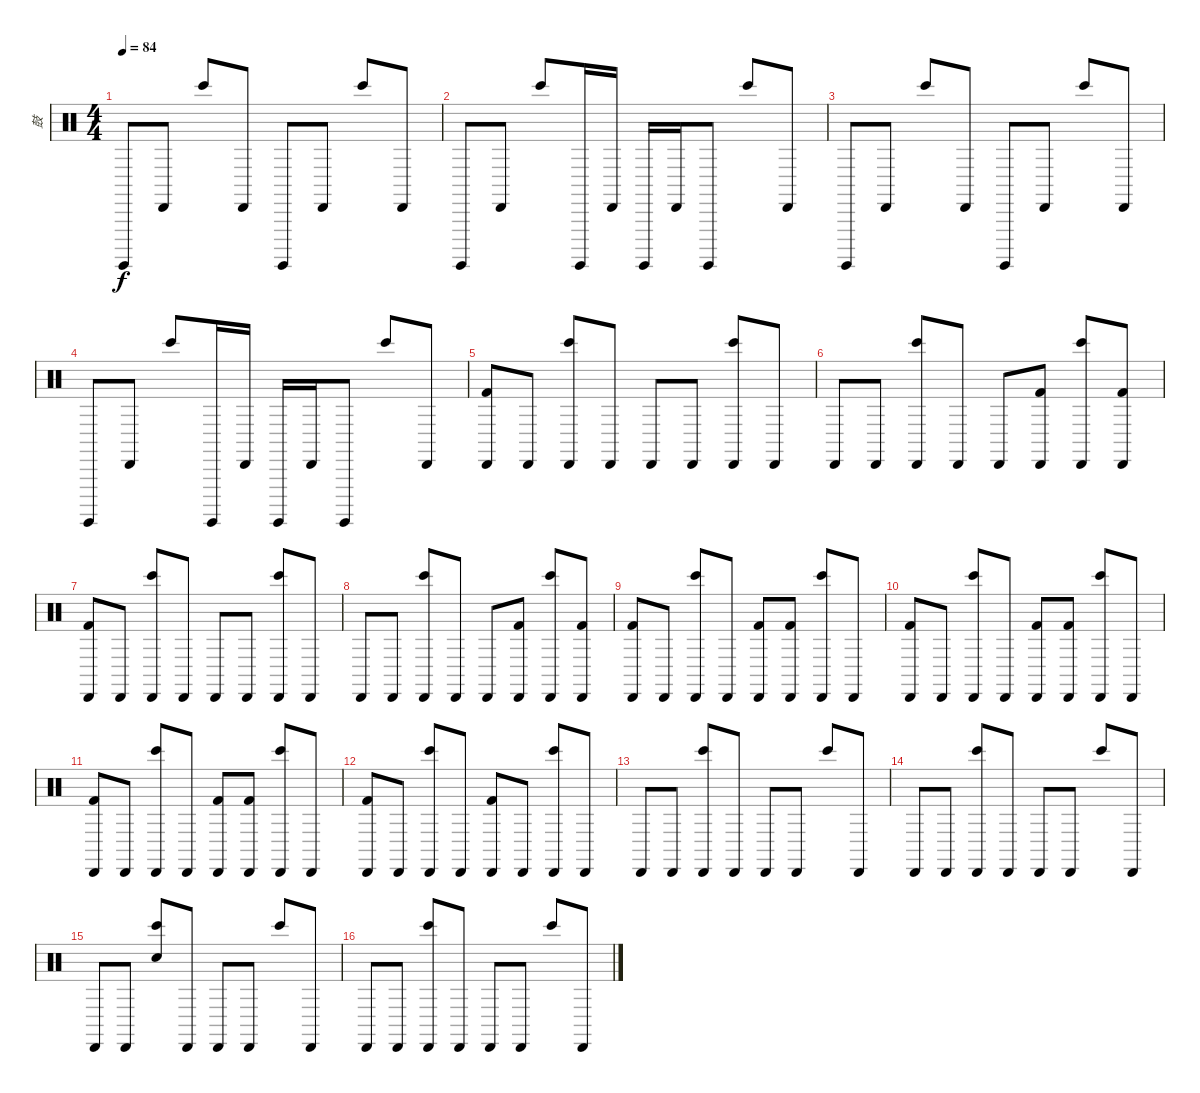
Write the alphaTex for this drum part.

\track ("鼓" "鼓") {instrument percussion}
\staff {score}
\articulation defaults
\ts (4 4)
\tempo 84
\clef neutral
\ks c "Surdo (hit)".8{dy f} "Cabasa (hit)".8 "Bongo High (hit)".8 "Cabasa (hit)".8 "Surdo (hit)".8 "Cabasa (hit)".8 "Bongo High (hit)".8 "Cabasa (hit)".8
|
"Surdo (hit)".8 "Cabasa (hit)".8 "Bongo High (hit)".8 "Surdo (hit)".16 "Cabasa (hit)".16 "Surdo (hit)".16 "Cabasa (hit)".16 "Surdo (hit)".8 "Bongo High (hit)".8 "Cabasa (hit)".8 |
"Surdo (hit)".8 "Cabasa (hit)".8 "Bongo High (hit)".8 "Cabasa (hit)".8 "Surdo (hit)".8 "Cabasa (hit)".8 "Bongo High (hit)".8 "Cabasa (hit)".8 |
"Surdo (hit)".8 "Cabasa (hit)".8 "Bongo High (hit)".8 "Surdo (hit)".16 "Cabasa (hit)".16 "Surdo (hit)".16 "Cabasa (hit)".16 "Surdo (hit)".8 "Bongo High (hit)".8 "Cabasa (hit)".8 |
("Cabasa (hit)" "Kick (hit) 2").8 "Cabasa (hit)".8 ("Cabasa (hit)" "Bongo High (hit)").8 "Cabasa (hit)".8 "Cabasa (hit)".8 "Cabasa (hit)".8 ("Cabasa (hit)" "Bongo High (hit)").8 "Cabasa (hit)".8 |
"Cabasa (hit)".8 "Cabasa (hit)".8 ("Cabasa (hit)" "Bongo High (hit)").8 "Cabasa (hit)".8 "Cabasa (hit)".8 ("Cabasa (hit)" "Kick (hit) 2").8 ("Cabasa (hit)" "Bongo High (hit)").8 ("Cabasa (hit)" "Kick (hit) 2").8 |
("Cabasa (hit)" "Kick (hit) 2").8 "Cabasa (hit)".8 ("Cabasa (hit)" "Bongo High (hit)").8 "Cabasa (hit)".8 "Cabasa (hit)".8 "Cabasa (hit)".8 ("Cabasa (hit)" "Bongo High (hit)").8 "Cabasa (hit)".8 |
"Cabasa (hit)".8 "Cabasa (hit)".8 ("Cabasa (hit)" "Bongo High (hit)").8 "Cabasa (hit)".8 "Cabasa (hit)".8 ("Cabasa (hit)" "Kick (hit) 2").8 ("Cabasa (hit)" "Bongo High (hit)").8 ("Cabasa (hit)" "Kick (hit) 2").8 |
("Cabasa (hit)" "Kick (hit) 2").8 "Cabasa (hit)".8 ("Cabasa (hit)" "Bongo High (hit)").8 "Cabasa (hit)".8 ("Cabasa (hit)" "Kick (hit) 2").8 ("Cabasa (hit)" "Kick (hit) 2").8 ("Cabasa (hit)" "Bongo High (hit)").8 "Cabasa (hit)".8 |
("Cabasa (hit)" "Kick (hit) 2").8 "Cabasa (hit)".8 ("Cabasa (hit)" "Bongo High (hit)").8 "Cabasa (hit)".8 ("Cabasa (hit)" "Kick (hit) 2").8 ("Cabasa (hit)" "Kick (hit) 2").8 ("Cabasa (hit)" "Bongo High (hit)").8 "Cabasa (hit)".8 |
("Cabasa (hit)" "Kick (hit) 2").8 "Cabasa (hit)".8 ("Cabasa (hit)" "Bongo High (hit)").8 "Cabasa (hit)".8 ("Cabasa (hit)" "Kick (hit) 2").8 ("Cabasa (hit)" "Kick (hit) 2").8 ("Cabasa (hit)" "Bongo High (hit)").8 "Cabasa (hit)".8 |
("Cabasa (hit)" "Kick (hit) 2").8 "Cabasa (hit)".8 ("Cabasa (hit)" "Bongo High (hit)").8 "Cabasa (hit)".8 ("Cabasa (hit)" "Kick (hit) 2").8 "Cabasa (hit)".8 ("Cabasa (hit)" "Bongo High (hit)").8 "Cabasa (hit)".8 |
"Cabasa (hit)".8 "Cabasa (hit)".8 ("Cabasa (hit)" "Bongo High (hit)").8 "Cabasa (hit)".8 "Cabasa (hit)".8 "Cabasa (hit)".8 "Bongo High (hit)".8 "Cabasa (hit)".8 |
"Cabasa (hit)".8 "Cabasa (hit)".8 ("Cabasa (hit)" "Bongo High (hit)").8 "Cabasa (hit)".8 "Cabasa (hit)".8 "Cabasa (hit)".8 "Bongo High (hit)".8 "Cabasa (hit)".8 |
"Cabasa (hit)".8 "Cabasa (hit)".8 ("Snare (hit)" "Bongo High (hit)").8 "Cabasa (hit)".8 "Cabasa (hit)".8 "Cabasa (hit)".8 "Bongo High (hit)".8 "Cabasa (hit)".8 |
"Cabasa (hit)".8 "Cabasa (hit)".8 ("Cabasa (hit)" "Bongo High (hit)").8 "Cabasa (hit)".8 "Cabasa (hit)".8 "Cabasa (hit)".8 "Bongo High (hit)".8 "Cabasa (hit)".8
